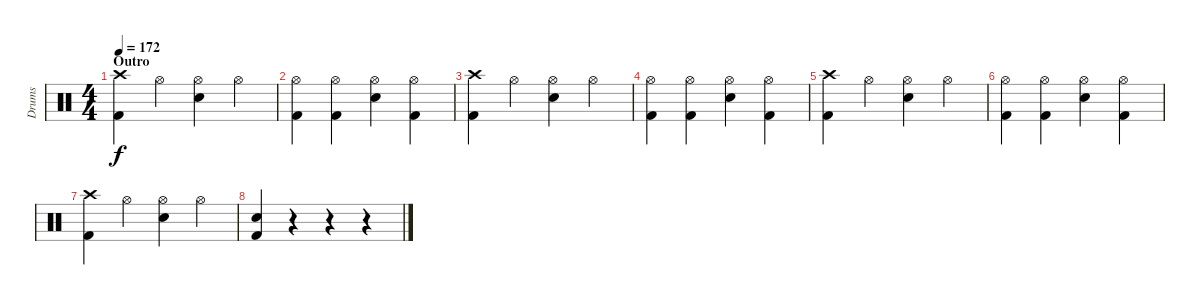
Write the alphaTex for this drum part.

\track ("Drums" "Drums") {instrument percussion}
\staff {score}
\articulation defaults
\ts (4 4)
\section ("" "Outro")
\tempo 172
\clef neutral
\ks c
("Kick (hit) 2" "Crash high (hit)").4{dy f} "Hi-Hat (open)".4 ("Electric Snare (hit)" "Hi-Hat (open)").4 "Hi-Hat (open)".4 |
("Kick (hit) 2" "Hi-Hat (open)").4 ("Kick (hit) 2" "Hi-Hat (open)").4 ("Electric Snare (hit)" "Hi-Hat (open)").4 ("Hi-Hat (open)" "Kick (hit) 2").4 |
("Kick (hit) 2" "Crash high (hit)").4 "Hi-Hat (open)".4 ("Electric Snare (hit)" "Hi-Hat (open)").4 "Hi-Hat (open)".4 |
("Kick (hit) 2" "Hi-Hat (open)").4 ("Kick (hit) 2" "Hi-Hat (open)").4 ("Electric Snare (hit)" "Hi-Hat (open)").4 ("Hi-Hat (open)" "Kick (hit) 2").4 |
("Kick (hit) 2" "Crash high (hit)").4 "Hi-Hat (open)".4 ("Electric Snare (hit)" "Hi-Hat (open)").4 "Hi-Hat (open)".4 |
("Kick (hit) 2" "Hi-Hat (open)").4 ("Kick (hit) 2" "Hi-Hat (open)").4 ("Electric Snare (hit)" "Hi-Hat (open)").4 ("Hi-Hat (open)" "Kick (hit) 2").4 |
("Kick (hit) 2" "Crash high (hit)").4 "Hi-Hat (open)".4 ("Electric Snare (hit)" "Hi-Hat (open)").4 "Hi-Hat (open)".4 |
("Kick (hit) 2" "Electric Snare (hit)").4 r.4 r.4 r.4
